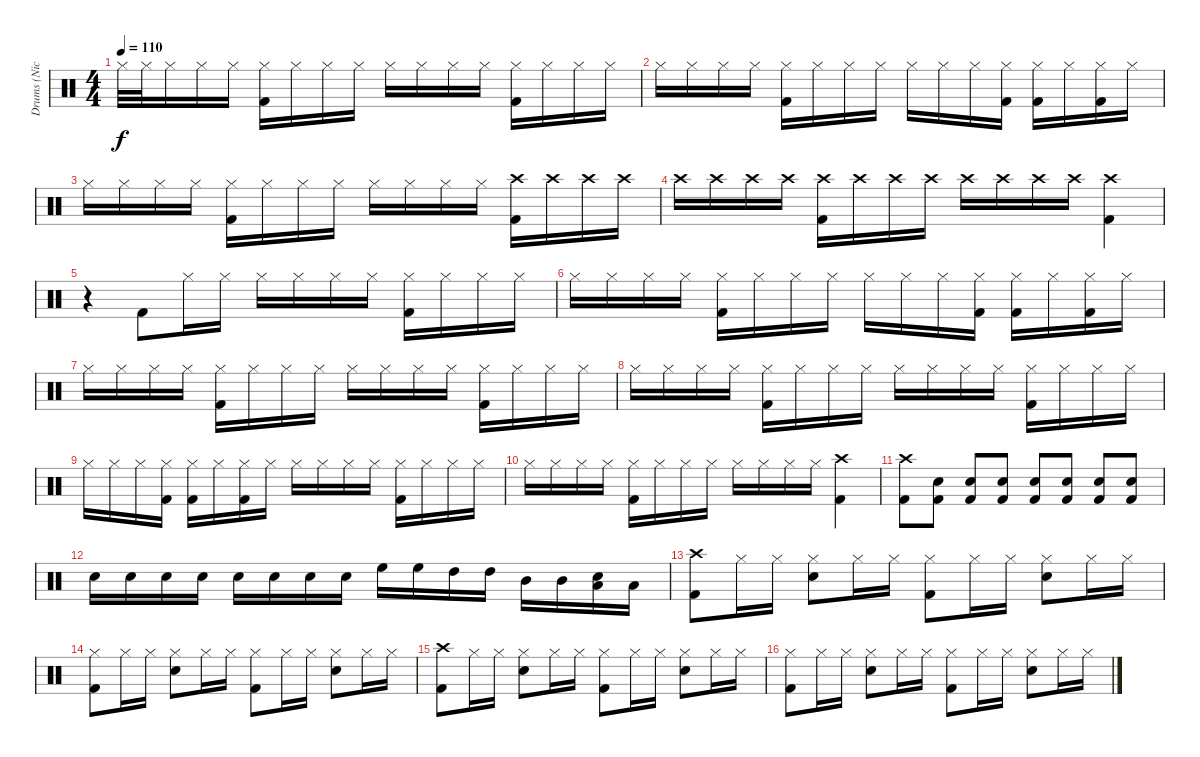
\track ("Drums (Nicko)" "Drums (Nic") {instrument percussion}
\staff {score}
\articulation defaults
\ts (4 4)
\tempo 110
\clef neutral
\ks c "Hi-Hat (closed)".32{dy f} "Hi-Hat (closed)".32 "Hi-Hat (closed)".16 "Hi-Hat (closed)".16 "Hi-Hat (closed)".16
("Hi-Hat (closed)" "Kick (hit) 2").16 "Hi-Hat (closed)".16 "Hi-Hat (closed)".16 "Hi-Hat (closed)".16 "Hi-Hat (closed)".16 "Hi-Hat (closed)".16 "Hi-Hat (closed)".16 "Hi-Hat (closed)".16 ("Hi-Hat (closed)" "Kick (hit) 2").16 "Hi-Hat (closed)".16 "Hi-Hat (closed)".16 "Hi-Hat (closed)".16 |
"Hi-Hat (closed)".16 "Hi-Hat (closed)".16 "Hi-Hat (closed)".16 "Hi-Hat (closed)".16 ("Hi-Hat (closed)" "Kick (hit) 2").16 "Hi-Hat (closed)".16 "Hi-Hat (closed)".16 "Hi-Hat (closed)".16 "Hi-Hat (closed)".16 "Hi-Hat (closed)".16 "Hi-Hat (closed)".16 ("Hi-Hat (closed)" "Kick (hit) 2").16 ("Hi-Hat (closed)" "Kick (hit) 2").16 "Hi-Hat (closed)".16 ("Hi-Hat (closed)" "Kick (hit) 2").16 "Hi-Hat (closed)".16 |
"Hi-Hat (closed)".16 "Hi-Hat (closed)".16 "Hi-Hat (closed)".16 "Hi-Hat (closed)".16 ("Hi-Hat (closed)" "Kick (hit) 2").16 "Hi-Hat (closed)".16 "Hi-Hat (closed)".16 "Hi-Hat (closed)".16 "Hi-Hat (closed)".16 "Hi-Hat (closed)".16 "Hi-Hat (closed)".16 "Hi-Hat (closed)".16 ("Crash high (hit)" "Kick (hit) 2").16 "Crash high (hit)".16 "Crash high (hit)".16 "Crash high (hit)".16 |
"Crash high (hit)".16 "Crash high (hit)".16 "Crash high (hit)".16 "Crash high (hit)".16 ("Crash high (hit)" "Kick (hit) 2").16 "Crash high (hit)".16 "Crash high (hit)".16 "Crash high (hit)".16 "Crash high (hit)".16 "Crash high (hit)".16 "Crash high (hit)".16 "Crash high (hit)".16 ("Crash high (hit)" "Kick (hit) 2").4 |
r.4 "Kick (hit) 2".8 "Hi-Hat (closed)".16 "Hi-Hat (closed)".16 "Hi-Hat (closed)".16 "Hi-Hat (closed)".16 "Hi-Hat (closed)".16 "Hi-Hat (closed)".16 ("Hi-Hat (closed)" "Kick (hit) 2").16 "Hi-Hat (closed)".16 "Hi-Hat (closed)".16 "Hi-Hat (closed)".16 |
"Hi-Hat (closed)".16 "Hi-Hat (closed)".16 "Hi-Hat (closed)".16 "Hi-Hat (closed)".16 ("Hi-Hat (closed)" "Kick (hit) 2").16 "Hi-Hat (closed)".16 "Hi-Hat (closed)".16 "Hi-Hat (closed)".16 "Hi-Hat (closed)".16 "Hi-Hat (closed)".16 "Hi-Hat (closed)".16 ("Hi-Hat (closed)" "Kick (hit) 2").16 ("Hi-Hat (closed)" "Kick (hit) 2").16 "Hi-Hat (closed)".16 ("Hi-Hat (closed)" "Kick (hit) 2").16 "Hi-Hat (closed)".16 |
"Hi-Hat (closed)".16 "Hi-Hat (closed)".16 "Hi-Hat (closed)".16 "Hi-Hat (closed)".16 ("Hi-Hat (closed)" "Kick (hit) 2").16 "Hi-Hat (closed)".16 "Hi-Hat (closed)".16 "Hi-Hat (closed)".16 "Hi-Hat (closed)".16 "Hi-Hat (closed)".16 "Hi-Hat (closed)".16 "Hi-Hat (closed)".16 ("Hi-Hat (closed)" "Kick (hit) 2").16 "Hi-Hat (closed)".16 "Hi-Hat (closed)".16 "Hi-Hat (closed)".16 |
"Hi-Hat (closed)".16 "Hi-Hat (closed)".16 "Hi-Hat (closed)".16 "Hi-Hat (closed)".16 ("Hi-Hat (closed)" "Kick (hit) 2").16 "Hi-Hat (closed)".16 "Hi-Hat (closed)".16 "Hi-Hat (closed)".16 "Hi-Hat (closed)".16 "Hi-Hat (closed)".16 "Hi-Hat (closed)".16 "Hi-Hat (closed)".16 ("Hi-Hat (closed)" "Kick (hit) 2").16 "Hi-Hat (closed)".16 "Hi-Hat (closed)".16 "Hi-Hat (closed)".16 |
"Hi-Hat (closed)".16 "Hi-Hat (closed)".16 "Hi-Hat (closed)".16 ("Hi-Hat (closed)" "Kick (hit) 2").16 ("Hi-Hat (closed)" "Kick (hit) 2").16 "Hi-Hat (closed)".16 ("Hi-Hat (closed)" "Kick (hit) 2").16 "Hi-Hat (closed)".16 "Hi-Hat (closed)".16 "Hi-Hat (closed)".16 "Hi-Hat (closed)".16 "Hi-Hat (closed)".16 ("Hi-Hat (closed)" "Kick (hit) 2").16 "Hi-Hat (closed)".16 "Hi-Hat (closed)".16 "Hi-Hat (closed)".16 |
"Hi-Hat (closed)".16 "Hi-Hat (closed)".16 "Hi-Hat (closed)".16 "Hi-Hat (closed)".16 ("Hi-Hat (closed)" "Kick (hit) 2").16 "Hi-Hat (closed)".16 "Hi-Hat (closed)".16 "Hi-Hat (closed)".16 "Hi-Hat (closed)".16 "Hi-Hat (closed)".16 "Hi-Hat (closed)".16 "Hi-Hat (closed)".16 ("Crash high (hit)" "Kick (hit) 2").4 |
("Crash high (hit)" "Kick (hit) 2").8 ("Kick (hit) 2" "Snare (hit) 2").8 ("Kick (hit) 2" "Snare (hit) 2").8 ("Kick (hit) 2" "Snare (hit) 2").8 ("Kick (hit) 2" "Snare (hit) 2").8 ("Kick (hit) 2" "Snare (hit) 2").8 ("Kick (hit) 2" "Snare (hit) 2").8 ("Kick (hit) 2" "Snare (hit) 2").8 |
"Snare (hit) 2".16 "Snare (hit) 2".16 "Snare (hit) 2".16 "Snare (hit) 2".16 "Snare (hit) 2".16 "Snare (hit) 2".16 "Snare (hit) 2".16 "Snare (hit) 2".16 "High Floor Tom (hit)".16 "High Floor Tom (hit)".16 "High Tom (hit)".16 "High Tom (hit)".16 "Mid Tom (hit)".16 "Mid Tom (hit)".16 ("Snare (hit) 2" "Low Tom (hit)").16 "Low Tom (hit)".16 |
("Crash high (hit)" "Kick (hit) 2").8 "Hi-Hat (closed)".16 "Hi-Hat (closed)".16 ("Hi-Hat (closed)" "Snare (hit) 2").8 "Hi-Hat (closed)".16 "Hi-Hat (closed)".16 ("Hi-Hat (closed)" "Kick (hit) 2").8 "Hi-Hat (closed)".16 "Hi-Hat (closed)".16 ("Hi-Hat (closed)" "Snare (hit) 2").8 "Hi-Hat (closed)".16 "Hi-Hat (closed)".16 |
("Hi-Hat (closed)" "Kick (hit) 2").8 "Hi-Hat (closed)".16 "Hi-Hat (closed)".16 ("Hi-Hat (closed)" "Snare (hit) 2").8 "Hi-Hat (closed)".16 "Hi-Hat (closed)".16 ("Hi-Hat (closed)" "Kick (hit) 2").8 "Hi-Hat (closed)".16 "Hi-Hat (closed)".16 ("Hi-Hat (closed)" "Snare (hit) 2").8 "Hi-Hat (closed)".16 "Hi-Hat (closed)".16 |
("Crash high (hit)" "Kick (hit) 2").8 "Hi-Hat (closed)".16 "Hi-Hat (closed)".16 ("Hi-Hat (closed)" "Snare (hit) 2").8 "Hi-Hat (closed)".16 "Hi-Hat (closed)".16 ("Hi-Hat (closed)" "Kick (hit) 2").8 "Hi-Hat (closed)".16 "Hi-Hat (closed)".16 ("Hi-Hat (closed)" "Snare (hit) 2").8 "Hi-Hat (closed)".16 "Hi-Hat (closed)".16 |
("Hi-Hat (closed)" "Kick (hit) 2").8 "Hi-Hat (closed)".16 "Hi-Hat (closed)".16 ("Hi-Hat (closed)" "Snare (hit) 2").8 "Hi-Hat (closed)".16 "Hi-Hat (closed)".16 ("Hi-Hat (closed)" "Kick (hit) 2").8 "Hi-Hat (closed)".16 "Hi-Hat (closed)".16 ("Hi-Hat (closed)" "Snare (hit) 2").8 "Hi-Hat (closed)".16 "Hi-Hat (closed)".16
